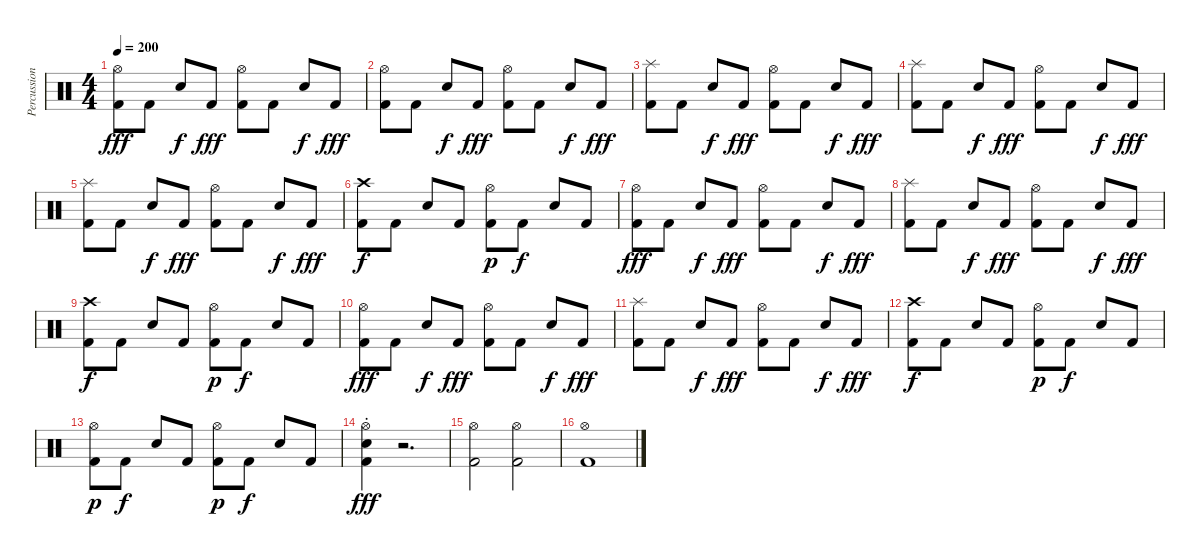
\track ("Percussion" "Percussion") {instrument percussion}
\staff {score}
\articulation defaults
\ts (4 4)
\tempo 200
\clef neutral
\ks c
("Hi-Hat (open)" "Kick (hit) 2").8{dy fff} "Kick (hit) 2".8 "Electric Snare (hit)".8{dy f} "Kick (hit) 2".8{dy fff} ("Hi-Hat (open)" "Kick (hit) 2").8 "Kick (hit) 2".8 "Electric Snare (hit)".8{dy f} "Kick (hit) 2".8{dy fff} |
("Hi-Hat (open)" "Kick (hit) 2").8 "Kick (hit) 2".8 "Electric Snare (hit)".8{dy f} "Kick (hit) 2".8{dy fff} ("Hi-Hat (open)" "Kick (hit) 2").8 "Kick (hit) 2".8 "Electric Snare (hit)".8{dy f} "Kick (hit) 2".8{dy fff} |
("Splash (hit)" "Kick (hit) 2").8 "Kick (hit) 2".8 "Electric Snare (hit)".8{dy f} "Kick (hit) 2".8{dy fff} ("Hi-Hat (open)" "Kick (hit) 2").8 "Kick (hit) 2".8 "Electric Snare (hit)".8{dy f} "Kick (hit) 2".8{dy fff} |
("Splash (hit)" "Kick (hit) 2").8 "Kick (hit) 2".8 "Electric Snare (hit)".8{dy f} "Kick (hit) 2".8{dy fff} ("Hi-Hat (open)" "Kick (hit) 2").8 "Kick (hit) 2".8 "Electric Snare (hit)".8{dy f} "Kick (hit) 2".8{dy fff} |
("Splash (hit)" "Kick (hit) 2").8 "Kick (hit) 2".8 "Electric Snare (hit)".8{dy f} "Kick (hit) 2".8{dy fff} ("Hi-Hat (open)" "Kick (hit) 2").8 "Kick (hit) 2".8 "Electric Snare (hit)".8{dy f} "Kick (hit) 2".8{dy fff} |
("Crash high (hit)" "Kick (hit) 2").8{dy f} "Kick (hit) 2".8 "Electric Snare (hit)".8 "Kick (hit) 2".8 ("Hi-Hat (open)" "Kick (hit) 2").8{dy p} "Kick (hit) 2".8{dy f} "Electric Snare (hit)".8 "Kick (hit) 2".8 |
("Hi-Hat (open)" "Kick (hit) 2").8{dy fff} "Kick (hit) 2".8 "Electric Snare (hit)".8{dy f} "Kick (hit) 2".8{dy fff} ("Hi-Hat (open)" "Kick (hit) 2").8 "Kick (hit) 2".8 "Electric Snare (hit)".8{dy f} "Kick (hit) 2".8{dy fff} |
("Splash (hit)" "Kick (hit) 2").8 "Kick (hit) 2".8 "Electric Snare (hit)".8{dy f} "Kick (hit) 2".8{dy fff} ("Hi-Hat (open)" "Kick (hit) 2").8 "Kick (hit) 2".8 "Electric Snare (hit)".8{dy f} "Kick (hit) 2".8{dy fff} |
("Crash high (hit)" "Kick (hit) 2").8{dy f} "Kick (hit) 2".8 "Electric Snare (hit)".8 "Kick (hit) 2".8 ("Hi-Hat (open)" "Kick (hit) 2").8{dy p} "Kick (hit) 2".8{dy f} "Electric Snare (hit)".8 "Kick (hit) 2".8 |
("Hi-Hat (open)" "Kick (hit) 2").8{dy fff} "Kick (hit) 2".8 "Electric Snare (hit)".8{dy f} "Kick (hit) 2".8{dy fff} ("Hi-Hat (open)" "Kick (hit) 2").8 "Kick (hit) 2".8 "Electric Snare (hit)".8{dy f} "Kick (hit) 2".8{dy fff} |
("Splash (hit)" "Kick (hit) 2").8 "Kick (hit) 2".8 "Electric Snare (hit)".8{dy f} "Kick (hit) 2".8{dy fff} ("Hi-Hat (open)" "Kick (hit) 2").8 "Kick (hit) 2".8 "Electric Snare (hit)".8{dy f} "Kick (hit) 2".8{dy fff} |
("Crash high (hit)" "Kick (hit) 2").8{dy f} "Kick (hit) 2".8 "Electric Snare (hit)".8 "Kick (hit) 2".8 ("Hi-Hat (open)" "Kick (hit) 2").8{dy p} "Kick (hit) 2".8{dy f} "Electric Snare (hit)".8 "Kick (hit) 2".8 |
("Hi-Hat (open)" "Kick (hit) 2").8{dy p} "Kick (hit) 2".8{dy f} "Electric Snare (hit)".8 "Kick (hit) 2".8 ("Hi-Hat (open)" "Kick (hit) 2").8{dy p} "Kick (hit) 2".8{dy f} "Electric Snare (hit)".8 "Kick (hit) 2".8 |
("Hi-Hat (open)"{st} "Electric Snare (hit)" "Kick (hit) 2").4{dy fff} r.2{d} |
("Hi-Hat (open)" "Kick (hit) 2").2 ("Hi-Hat (open)" "Kick (hit) 2").2 |
("Hi-Hat (open)" "Kick (hit) 2").1
